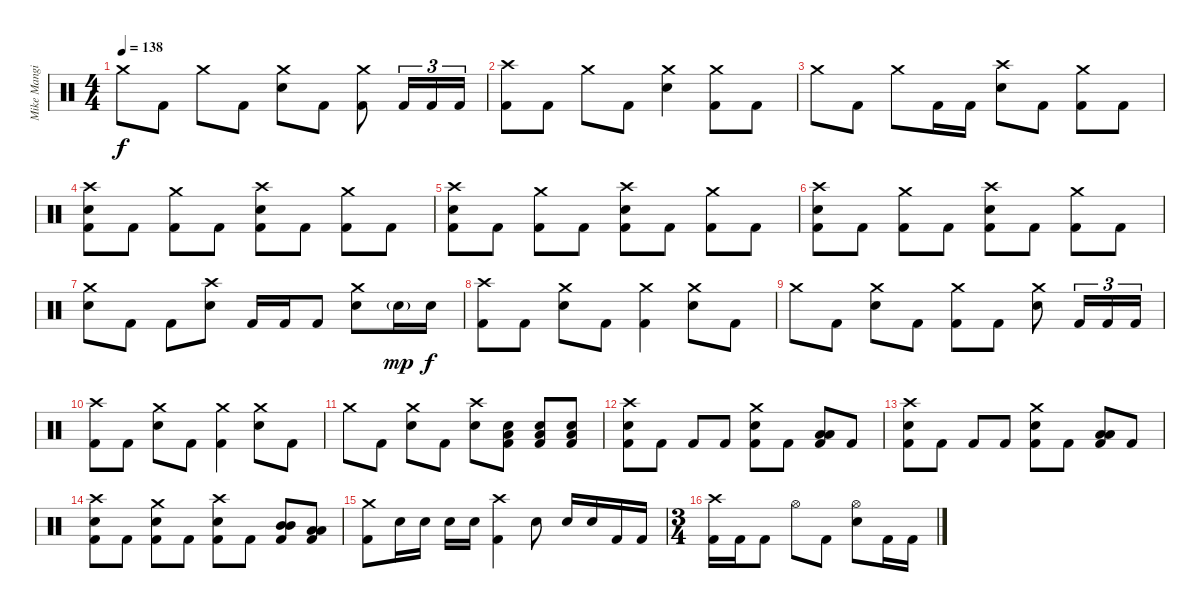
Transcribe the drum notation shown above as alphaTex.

\track ("Mike Mangini" "Mike Mangi") {instrument percussion}
\staff {score}
\articulation defaults
\ts (4 4)
\tempo 138
\clef neutral
\ks c "Crash medium (hit)".8{dy f} "Kick (hit) 2".8 "Crash medium (hit)".8 "Kick (hit) 2".8
("Crash medium (hit)" "Electric Snare (hit)").8 "Kick (hit) 2".8 ("Crash medium (hit)" "Kick (hit) 2").8 "Kick (hit) 2".16{tu (3 2)} "Kick (hit) 2".16{tu (3 2)} "Kick (hit) 2".16{tu (3 2)} |
("Crash high (hit)" "Kick (hit) 2").8 "Kick (hit) 2".8 "Crash medium (hit)".8 "Kick (hit) 2".8 ("Crash medium (hit)" "Electric Snare (hit)").4 ("Crash medium (hit)" "Kick (hit) 2").8 "Kick (hit) 2".8 |
"Crash medium (hit)".8 "Kick (hit) 2".8 "Crash medium (hit)".8 "Kick (hit) 2".16 "Kick (hit) 2".16 ("Crash high (hit)" "Electric Snare (hit)").8 "Kick (hit) 2".8 ("Crash medium (hit)" "Kick (hit) 2").8 "Kick (hit) 2".8 |
("Crash high (hit)" "Electric Snare (hit)" "Kick (hit) 2").8 "Kick (hit) 2".8 ("Crash medium (hit)" "Kick (hit) 2").8 "Kick (hit) 2".8 ("Crash high (hit)" "Electric Snare (hit)" "Kick (hit) 2").8 "Kick (hit) 2".8 ("Crash medium (hit)" "Kick (hit) 2").8 "Kick (hit) 2".8 |
("Crash high (hit)" "Electric Snare (hit)" "Kick (hit) 2").8 "Kick (hit) 2".8 ("Crash medium (hit)" "Kick (hit) 2").8 "Kick (hit) 2".8 ("Crash high (hit)" "Electric Snare (hit)" "Kick (hit) 2").8 "Kick (hit) 2".8 ("Crash medium (hit)" "Kick (hit) 2").8 "Kick (hit) 2".8 |
("Crash high (hit)" "Electric Snare (hit)" "Kick (hit) 2").8 "Kick (hit) 2".8 ("Crash medium (hit)" "Kick (hit) 2").8 "Kick (hit) 2".8 ("Crash high (hit)" "Electric Snare (hit)" "Kick (hit) 2").8 "Kick (hit) 2".8 ("Crash medium (hit)" "Kick (hit) 2").8 "Kick (hit) 2".8 |
("Crash medium (hit)" "Electric Snare (hit)").8 "Kick (hit) 2".8 "Kick (hit) 2".8 ("Crash high (hit)" "Electric Snare (hit)").8 "Kick (hit) 2".16 "Kick (hit) 2".16 "Kick (hit) 2".8 ("Crash medium (hit)" "Electric Snare (hit)").8 "Electric Snare (hit)"{g}.16{dy mp} "Electric Snare (hit)".16{dy f} |
("Crash high (hit)" "Kick (hit) 2").8 "Kick (hit) 2".8 ("Crash medium (hit)" "Electric Snare (hit)").8 "Kick (hit) 2".8 ("Crash medium (hit)" "Kick (hit) 2").4 ("Crash medium (hit)" "Electric Snare (hit)").8 "Kick (hit) 2".8 |
"Crash medium (hit)".8 "Kick (hit) 2".8 ("Crash medium (hit)" "Electric Snare (hit)").8 "Kick (hit) 2".8 ("Crash medium (hit)" "Kick (hit) 2").8 "Kick (hit) 2".8 ("Crash medium (hit)" "Electric Snare (hit)").8 "Kick (hit) 2".16{tu (3 2)} "Kick (hit) 2".16{tu (3 2)} "Kick (hit) 2".16{tu (3 2)} |
("Crash high (hit)" "Kick (hit) 2").8 "Kick (hit) 2".8 ("Crash medium (hit)" "Electric Snare (hit)").8 "Kick (hit) 2".8 ("Crash medium (hit)" "Kick (hit) 2").4 ("Crash medium (hit)" "Electric Snare (hit)").8 "Kick (hit) 2".8 |
"Crash medium (hit)".8 "Kick (hit) 2".8 ("Crash medium (hit)" "Electric Snare (hit)").8 "Kick (hit) 2".8 ("Crash high (hit)" "Electric Snare (hit)").8 ("Low Tom (hit)" "Electric Snare (hit)" "Kick (hit) 2").8 ("Low Tom (hit)" "Electric Snare (hit)" "Kick (hit) 2").8 ("Low Tom (hit)" "Electric Snare (hit)" "Kick (hit) 2").8 |
("Crash high (hit)" "Electric Snare (hit)" "Kick (hit) 2").8 "Kick (hit) 2".8 "Kick (hit) 2".8 "Kick (hit) 2".8 ("Crash medium (hit)" "Electric Snare (hit)" "Kick (hit) 2").8 "Kick (hit) 2".8 ("Low Tom (hit)" "Low Tom (hit)" "Kick (hit) 2").8 "Kick (hit) 2".8 |
("Crash high (hit)" "Electric Snare (hit)" "Kick (hit) 2").8 "Kick (hit) 2".8 "Kick (hit) 2".8 "Kick (hit) 2".8 ("Crash medium (hit)" "Electric Snare (hit)" "Kick (hit) 2").8 "Kick (hit) 2".8 ("Low Tom (hit)" "Low Tom (hit)" "Kick (hit) 2").8 "Kick (hit) 2".8 |
("Crash high (hit)" "Electric Snare (hit)" "Kick (hit) 2").8 "Kick (hit) 2".8 ("Crash medium (hit)" "Electric Snare (hit)" "Kick (hit) 2").8 "Kick (hit) 2".8 ("Crash high (hit)" "Electric Snare (hit)" "Kick (hit) 2").8 "Kick (hit) 2".8 ("Mid Tom (hit)" "Mid Tom (hit)" "Kick (hit) 2").8 ("Low Tom (hit)" "Low Tom (hit)" "Kick (hit) 2").8 |
("Crash medium (hit)" "Kick (hit) 2").8 "Electric Snare (hit)".16 "Electric Snare (hit)".16 "Electric Snare (hit)".16 "Electric Snare (hit)".16 ("Crash high (hit)" "Kick (hit) 2").4 "Electric Snare (hit)".8 "Electric Snare (hit)".16 "Electric Snare (hit)".16 "Kick (hit) 2".16 "Kick (hit) 2".16 |
\ts (3 4)
("Crash high (hit)" "Kick (hit) 2").16 "Kick (hit) 2".16 "Kick (hit) 2".8 "Hi-Hat (open)".8 "Kick (hit) 2".8 ("Hi-Hat (open)" "Electric Snare (hit)").8 "Kick (hit) 2".16 "Kick (hit) 2".16
